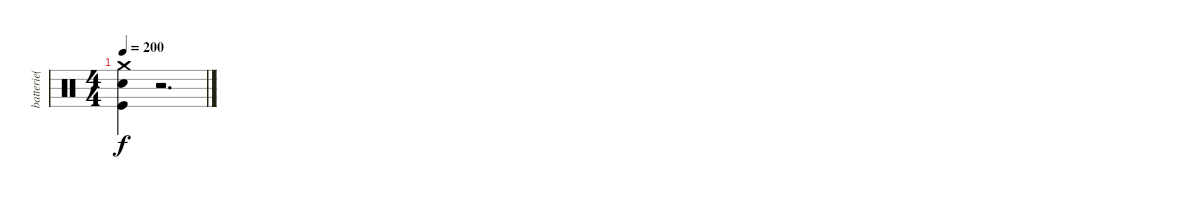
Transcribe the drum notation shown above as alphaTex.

\track ("batterie( Meggers )" "batterie( ") {instrument percussion}
\staff {score}
\articulation defaults
\ts (4 4)
\tempo 200
\clef neutral
\ks c
("Crash medium (hit)" "Snare (hit) 2" "Kick (hit)").4{dy f} r.2{d}
